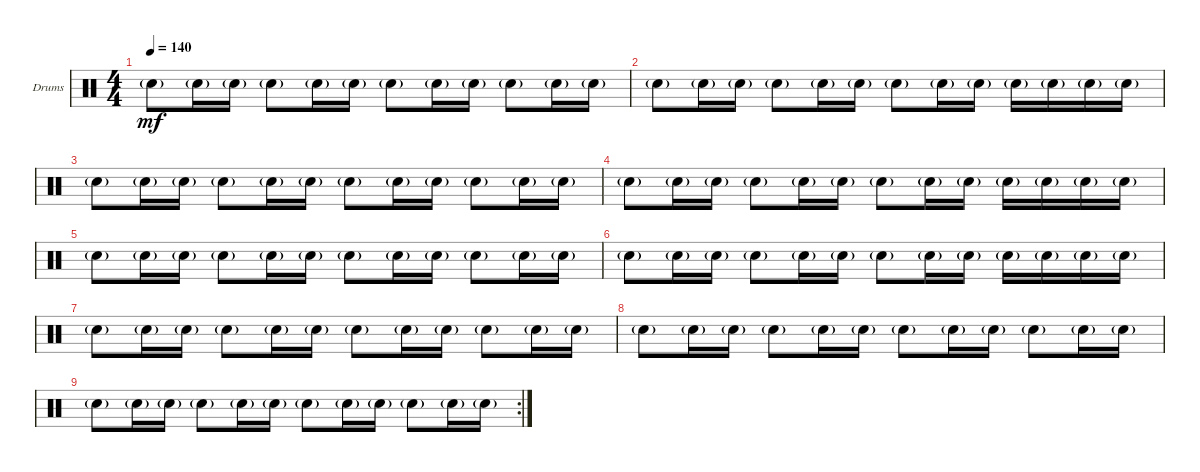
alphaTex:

\defaultSystemsLayout 4
\bracketExtendMode groupsimilarinstruments
\firstSystemTrackNameOrientation horizontal
\otherSystemsTrackNameOrientation horizontal
\track ("Drums" "Drums") {instrument percussion}
\staff {score}
\articulation defaults
\ts (4 4)
\tempo 140
\clef neutral
\ks c "Snare (hit) 2"{g}.8{dy mf} "Snare (hit) 2"{g}.16 "Snare (hit) 2"{g}.16 "Snare (hit) 2"{g}.8 "Snare (hit) 2"{g}.16 "Snare (hit) 2"{g}.16 "Snare (hit) 2"{g}.8 "Snare (hit) 2"{g}.16 "Snare (hit) 2"{g}.16 "Snare (hit) 2"{g}.8 "Snare (hit) 2"{g}.16 "Snare (hit) 2"{g}.16
|
"Snare (hit) 2"{g}.8 "Snare (hit) 2"{g}.16 "Snare (hit) 2"{g}.16 "Snare (hit) 2"{g}.8 "Snare (hit) 2"{g}.16 "Snare (hit) 2"{g}.16 "Snare (hit) 2"{g}.8 "Snare (hit) 2"{g}.16 "Snare (hit) 2"{g}.16 "Snare (hit) 2"{g}.16 "Snare (hit) 2"{g}.16 "Snare (hit) 2"{g}.16 "Snare (hit) 2"{g}.16 |
"Snare (hit) 2"{g}.8 "Snare (hit) 2"{g}.16 "Snare (hit) 2"{g}.16 "Snare (hit) 2"{g}.8 "Snare (hit) 2"{g}.16 "Snare (hit) 2"{g}.16 "Snare (hit) 2"{g}.8 "Snare (hit) 2"{g}.16 "Snare (hit) 2"{g}.16 "Snare (hit) 2"{g}.8 "Snare (hit) 2"{g}.16 "Snare (hit) 2"{g}.16 |
"Snare (hit) 2"{g}.8 "Snare (hit) 2"{g}.16 "Snare (hit) 2"{g}.16 "Snare (hit) 2"{g}.8 "Snare (hit) 2"{g}.16 "Snare (hit) 2"{g}.16 "Snare (hit) 2"{g}.8 "Snare (hit) 2"{g}.16 "Snare (hit) 2"{g}.16 "Snare (hit) 2"{g}.16 "Snare (hit) 2"{g}.16 "Snare (hit) 2"{g}.16 "Snare (hit) 2"{g}.16 |
"Snare (hit) 2"{g}.8 "Snare (hit) 2"{g}.16 "Snare (hit) 2"{g}.16 "Snare (hit) 2"{g}.8 "Snare (hit) 2"{g}.16 "Snare (hit) 2"{g}.16 "Snare (hit) 2"{g}.8 "Snare (hit) 2"{g}.16 "Snare (hit) 2"{g}.16 "Snare (hit) 2"{g}.8 "Snare (hit) 2"{g}.16 "Snare (hit) 2"{g}.16 |
"Snare (hit) 2"{g}.8 "Snare (hit) 2"{g}.16 "Snare (hit) 2"{g}.16 "Snare (hit) 2"{g}.8 "Snare (hit) 2"{g}.16 "Snare (hit) 2"{g}.16 "Snare (hit) 2"{g}.8 "Snare (hit) 2"{g}.16 "Snare (hit) 2"{g}.16 "Snare (hit) 2"{g}.16 "Snare (hit) 2"{g}.16 "Snare (hit) 2"{g}.16 "Snare (hit) 2"{g}.16 |
"Snare (hit) 2"{g}.8 "Snare (hit) 2"{g}.16 "Snare (hit) 2"{g}.16 "Snare (hit) 2"{g}.8 "Snare (hit) 2"{g}.16 "Snare (hit) 2"{g}.16 "Snare (hit) 2"{g}.8 "Snare (hit) 2"{g}.16 "Snare (hit) 2"{g}.16 "Snare (hit) 2"{g}.8 "Snare (hit) 2"{g}.16 "Snare (hit) 2"{g}.16 |
"Snare (hit) 2"{g}.8 "Snare (hit) 2"{g}.16 "Snare (hit) 2"{g}.16 "Snare (hit) 2"{g}.8 "Snare (hit) 2"{g}.16 "Snare (hit) 2"{g}.16 "Snare (hit) 2"{g}.8 "Snare (hit) 2"{g}.16 "Snare (hit) 2"{g}.16 "Snare (hit) 2"{g}.8 "Snare (hit) 2"{g}.16 "Snare (hit) 2"{g}.16 |
\rc 2 "Snare (hit) 2"{g}.8 "Snare (hit) 2"{g}.16 "Snare (hit) 2"{g}.16 "Snare (hit) 2"{g}.8 "Snare (hit) 2"{g}.16 "Snare (hit) 2"{g}.16 "Snare (hit) 2"{g}.8 "Snare (hit) 2"{g}.16 "Snare (hit) 2"{g}.16 "Snare (hit) 2"{g}.8 "Snare (hit) 2"{g}.16 "Snare (hit) 2"{g}.16
